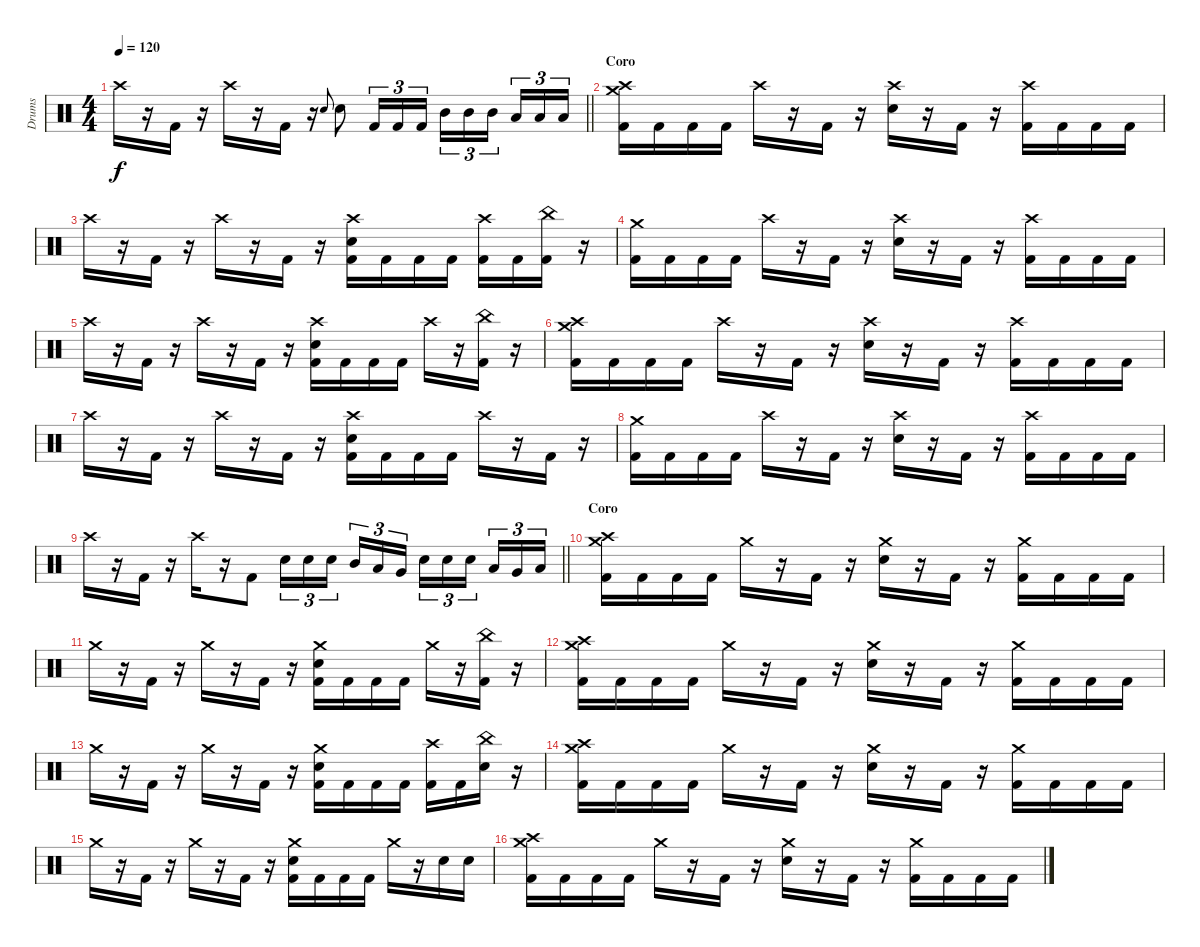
\track ("Drums " "Drums ") {instrument percussion}
\staff {score}
\articulation defaults
\ts (4 4)
\tempo 120
\clef neutral
\barLineRight lightlight
\ks c "Crash high (hit)".16{dy f}
r.16 "Kick (hit) 2".16 r.16 "Crash high (hit)".16 r.16 "Kick (hit) 2".16 r.16 "Electric Snare (hit)".8{gr onbeat} "Electric Snare (hit)".8 "Kick (hit) 2".16{tu (3 2)} "Kick (hit) 2".16{tu (3 2)} "Kick (hit) 2".16{tu (3 2)} "Mid Tom (hit)".16{tu (3 2)} "Mid Tom (hit)".16{tu (3 2)} "Mid Tom (hit)".16{tu (3 2) beam splitsecondary} "Low Tom (hit)".16{tu (3 2)} "Low Tom (hit)".16{tu (3 2)} "Low Tom (hit)".16{tu (3 2)} |
\section ("" "Coro")
("Crash medium (hit)" "Crash high (hit)" "Kick (hit) 2").16 "Kick (hit) 2".16 "Kick (hit) 2".16 "Kick (hit) 2".16 "Crash high (hit)".16 r.16 "Kick (hit) 2".16 r.16 ("Crash high (hit)" "Electric Snare (hit)").16 r.16 "Kick (hit) 2".16 r.16 ("Crash high (hit)" "Kick (hit) 2").16 "Kick (hit) 2".16 "Kick (hit) 2".16 "Kick (hit) 2".16 |
"Crash high (hit)".16 r.16 "Kick (hit) 2".16 r.16 "Crash high (hit)".16 r.16 "Kick (hit) 2".16 r.16 ("Crash high (hit)" "Electric Snare (hit)" "Kick (hit) 2").16 "Kick (hit) 2".16 "Kick (hit) 2".16 "Kick (hit) 2".16 ("Crash high (hit)" "Kick (hit) 2").16 "Kick (hit) 2".16 ("China (hit)" "Kick (hit) 2").16 r.16 |
("Crash medium (hit)" "Kick (hit) 2").16 "Kick (hit) 2".16 "Kick (hit) 2".16 "Kick (hit) 2".16 "Crash high (hit)".16 r.16 "Kick (hit) 2".16 r.16 ("Crash high (hit)" "Electric Snare (hit)").16 r.16 "Kick (hit) 2".16 r.16 ("Crash high (hit)" "Kick (hit) 2").16 "Kick (hit) 2".16 "Kick (hit) 2".16 "Kick (hit) 2".16 |
"Crash high (hit)".16 r.16 "Kick (hit) 2".16 r.16 "Crash high (hit)".16 r.16 "Kick (hit) 2".16 r.16 ("Crash high (hit)" "Electric Snare (hit)" "Kick (hit) 2").16 "Kick (hit) 2".16 "Kick (hit) 2".16 "Kick (hit) 2".16 "Crash high (hit)".16 r.16 ("China (hit)" "Kick (hit) 2").16 r.16 |
("Crash medium (hit)" "Crash high (hit)" "Kick (hit) 2").16 "Kick (hit) 2".16 "Kick (hit) 2".16 "Kick (hit) 2".16 "Crash high (hit)".16 r.16 "Kick (hit) 2".16 r.16 ("Crash high (hit)" "Electric Snare (hit)").16 r.16 "Kick (hit) 2".16 r.16 ("Crash high (hit)" "Kick (hit) 2").16 "Kick (hit) 2".16 "Kick (hit) 2".16 "Kick (hit) 2".16 |
"Crash high (hit)".16 r.16 "Kick (hit) 2".16 r.16 "Crash high (hit)".16 r.16 "Kick (hit) 2".16 r.16 ("Crash high (hit)" "Electric Snare (hit)" "Kick (hit) 2").16 "Kick (hit) 2".16 "Kick (hit) 2".16 "Kick (hit) 2".16 "Crash high (hit)".16 r.16 "Kick (hit) 2".16 r.16 |
("Crash medium (hit)" "Kick (hit) 2").16 "Kick (hit) 2".16 "Kick (hit) 2".16 "Kick (hit) 2".16 "Crash high (hit)".16 r.16 "Kick (hit) 2".16 r.16 ("Crash high (hit)" "Electric Snare (hit)").16 r.16 "Kick (hit) 2".16 r.16 ("Crash high (hit)" "Kick (hit) 2").16 "Kick (hit) 2".16 "Kick (hit) 2".16 "Kick (hit) 2".16 |
\barLineRight lightlight "Crash high (hit)".16
r.16 "Kick (hit) 2".16 r.16 "Crash high (hit)".16 r.16 "Kick (hit) 2".8 "Electric Snare (hit)".16{tu (3 2)} "Electric Snare (hit)".16{tu (3 2)} "Electric Snare (hit)".16{tu (3 2) beam splitsecondary} "Mid Tom (hit)".16{tu (3 2)} "Low Tom (hit)".16{tu (3 2)} "Very Low Tom (hit)".16{tu (3 2)} "Electric Snare (hit)".16{tu (3 2)} "Electric Snare (hit)".16{tu (3 2)} "Electric Snare (hit)".16{tu (3 2) beam splitsecondary} "Low Tom (hit)".16{tu (3 2)} "Very Low Tom (hit)".16{tu (3 2)} "Low Floor Tom (hit)".16{tu (3 2)} |
\section ("" "Coro")
("Crash medium (hit)" "Crash high (hit)" "Kick (hit) 2").16 "Kick (hit) 2".16 "Kick (hit) 2".16 "Kick (hit) 2".16 "Crash medium (hit)".16 r.16 "Kick (hit) 2".16 r.16 ("Crash medium (hit)" "Electric Snare (hit)").16 r.16 "Kick (hit) 2".16 r.16 ("Crash medium (hit)" "Kick (hit) 2").16 "Kick (hit) 2".16 "Kick (hit) 2".16 "Kick (hit) 2".16 |
"Crash medium (hit)".16 r.16 "Kick (hit) 2".16 r.16 "Crash medium (hit)".16 r.16 "Kick (hit) 2".16 r.16 ("Crash medium (hit)" "Electric Snare (hit)" "Kick (hit) 2").16 "Kick (hit) 2".16 "Kick (hit) 2".16 "Kick (hit) 2".16 "Crash medium (hit)".16 r.16 ("China (hit)" "Kick (hit) 2").16 r.16 |
("Crash medium (hit)" "Crash high (hit)" "Kick (hit) 2").16 "Kick (hit) 2".16 "Kick (hit) 2".16 "Kick (hit) 2".16 "Crash medium (hit)".16 r.16 "Kick (hit) 2".16 r.16 ("Crash medium (hit)" "Electric Snare (hit)").16 r.16 "Kick (hit) 2".16 r.16 ("Crash medium (hit)" "Kick (hit) 2").16 "Kick (hit) 2".16 "Kick (hit) 2".16 "Kick (hit) 2".16 |
"Crash medium (hit)".16 r.16 "Kick (hit) 2".16 r.16 "Crash medium (hit)".16 r.16 "Kick (hit) 2".16 r.16 ("Crash medium (hit)" "Electric Snare (hit)" "Kick (hit) 2").16 "Kick (hit) 2".16 "Kick (hit) 2".16 "Kick (hit) 2".16 ("Crash high (hit)" "Kick (hit) 2").16 "Kick (hit) 2".16 ("China (hit)" "Electric Snare (hit)").16 r.16 |
("Crash medium (hit)" "Crash high (hit)" "Kick (hit) 2").16 "Kick (hit) 2".16 "Kick (hit) 2".16 "Kick (hit) 2".16 "Crash medium (hit)".16 r.16 "Kick (hit) 2".16 r.16 ("Crash medium (hit)" "Electric Snare (hit)").16 r.16 "Kick (hit) 2".16 r.16 ("Crash medium (hit)" "Kick (hit) 2").16 "Kick (hit) 2".16 "Kick (hit) 2".16 "Kick (hit) 2".16 |
"Crash medium (hit)".16 r.16 "Kick (hit) 2".16 r.16 "Crash medium (hit)".16 r.16 "Kick (hit) 2".16 r.16 ("Crash medium (hit)" "Electric Snare (hit)" "Kick (hit) 2").16 "Kick (hit) 2".16 "Kick (hit) 2".16 "Kick (hit) 2".16 "Crash medium (hit)".16 r.16 "Electric Snare (hit)".16 "Electric Snare (hit)".16 |
("Crash medium (hit)" "Crash high (hit)" "Kick (hit) 2").16 "Kick (hit) 2".16 "Kick (hit) 2".16 "Kick (hit) 2".16 "Crash medium (hit)".16 r.16 "Kick (hit) 2".16 r.16 ("Crash medium (hit)" "Electric Snare (hit)").16 r.16 "Kick (hit) 2".16 r.16 ("Crash medium (hit)" "Kick (hit) 2").16 "Kick (hit) 2".16 "Kick (hit) 2".16 "Kick (hit) 2".16
